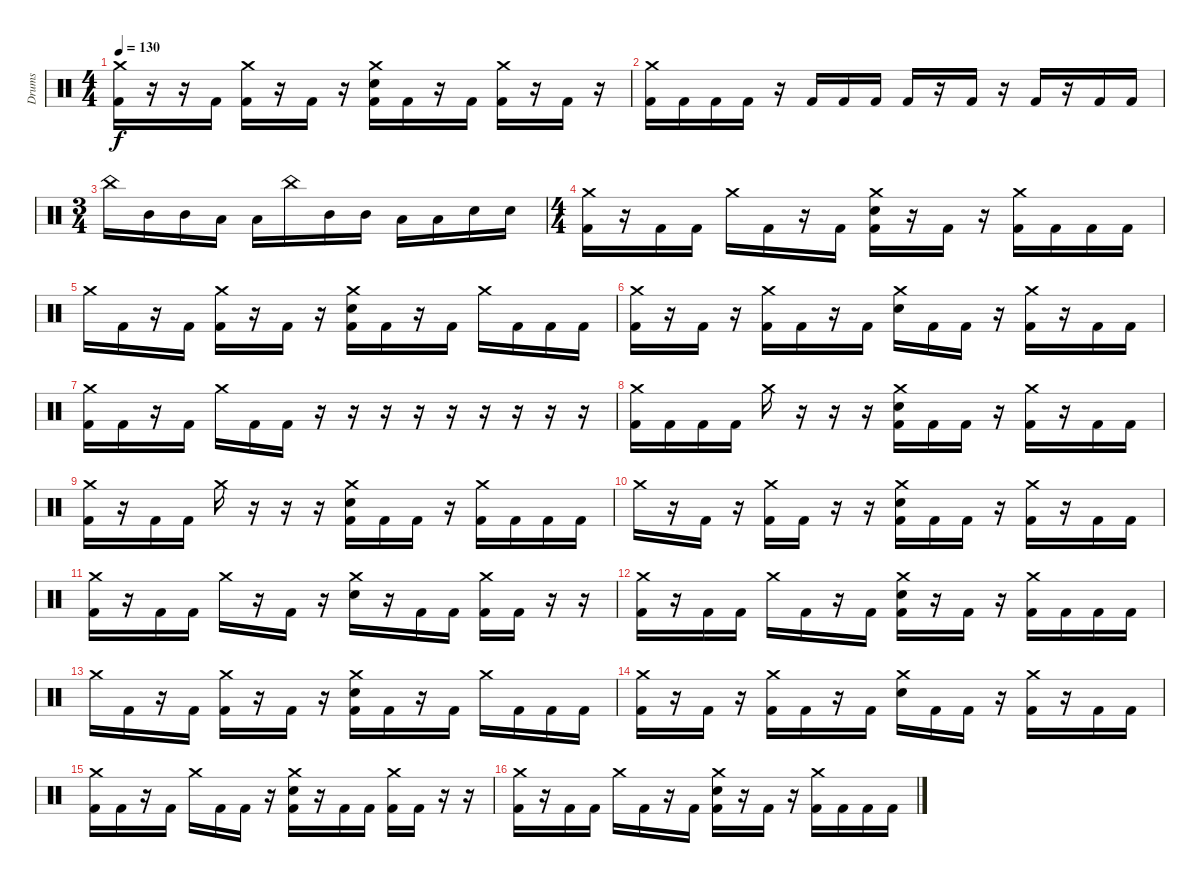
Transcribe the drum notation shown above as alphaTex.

\track ("Drums" "Drums") {instrument percussion}
\staff {score}
\articulation defaults
\ts (4 4)
\tempo 130
\clef neutral
\ks c
("Crash medium (hit)" "Kick (hit) 2").16{dy f} r.16 r.16 "Kick (hit) 2".16 ("Crash medium (hit)" "Kick (hit) 2").16 r.16 "Kick (hit) 2".16 r.16 ("Crash medium (hit)" "Electric Snare (hit)" "Kick (hit) 2").16 "Kick (hit) 2".16 r.16 "Kick (hit) 2".16 ("Crash medium (hit)" "Kick (hit) 2").16 r.16 "Kick (hit) 2".16 r.16 |
("Crash medium (hit)" "Kick (hit) 2").16 "Kick (hit) 2".16 "Kick (hit) 2".16 "Kick (hit) 2".16 r.16 "Kick (hit) 2".16 "Kick (hit) 2".16 "Kick (hit) 2".16 "Kick (hit) 2".16 r.16 "Kick (hit) 2".16 r.16 "Kick (hit) 2".16 r.16 "Kick (hit) 2".16 "Kick (hit) 2".16 |
\ts (3 4)
"China (hit)".16 "Mid Tom (hit)".16 "Mid Tom (hit)".16 "Low Tom (hit)".16 "Low Tom (hit)".16 "China (hit)".16 "Mid Tom (hit)".16 "Mid Tom (hit)".16 "Low Tom (hit)".16 "Low Tom (hit)".16 "Electric Snare (hit)".16 "Electric Snare (hit)".16 |
\ts (4 4)
("Crash medium (hit)" "Kick (hit) 2").16 r.16 "Kick (hit) 2".16 "Kick (hit) 2".16 "Crash medium (hit)".16 "Kick (hit) 2".16 r.16 "Kick (hit) 2".16 ("Crash medium (hit)" "Electric Snare (hit)" "Kick (hit) 2").16 r.16 "Kick (hit) 2".16 r.16 ("Crash medium (hit)" "Kick (hit) 2").16 "Kick (hit) 2".16 "Kick (hit) 2".16 "Kick (hit) 2".16 |
"Crash medium (hit)".16 "Kick (hit) 2".16 r.16 "Kick (hit) 2".16 ("Crash medium (hit)" "Kick (hit) 2").16 r.16 "Kick (hit) 2".16 r.16 ("Crash medium (hit)" "Electric Snare (hit)" "Kick (hit) 2").16 "Kick (hit) 2".16 r.16 "Kick (hit) 2".16 "Crash medium (hit)".16 "Kick (hit) 2".16 "Kick (hit) 2".16 "Kick (hit) 2".16 |
("Crash medium (hit)" "Kick (hit) 2").16 r.16 "Kick (hit) 2".16 r.16 ("Crash medium (hit)" "Kick (hit) 2").16 "Kick (hit) 2".16 r.16 "Kick (hit) 2".16 ("Crash medium (hit)" "Electric Snare (hit)").16 "Kick (hit) 2".16 "Kick (hit) 2".16 r.16 ("Crash medium (hit)" "Kick (hit) 2").16 r.16 "Kick (hit) 2".16 "Kick (hit) 2".16 |
("Crash medium (hit)" "Kick (hit) 2").16 "Kick (hit) 2".16 r.16 "Kick (hit) 2".16 "Crash medium (hit)".16 "Kick (hit) 2".16 "Kick (hit) 2".16 r.16 r.16 r.16 r.16 r.16 r.16 r.16 r.16 r.16 |
("Crash medium (hit)" "Kick (hit) 2").16 "Kick (hit) 2".16 "Kick (hit) 2".16 "Kick (hit) 2".16 "Crash medium (hit)".16 r.16 r.16 r.16 ("Crash medium (hit)" "Electric Snare (hit)" "Kick (hit) 2").16 "Kick (hit) 2".16 "Kick (hit) 2".16 r.16 ("Crash medium (hit)" "Kick (hit) 2").16 r.16 "Kick (hit) 2".16 "Kick (hit) 2".16 |
("Crash medium (hit)" "Kick (hit) 2").16 r.16 "Kick (hit) 2".16 "Kick (hit) 2".16 "Crash medium (hit)".16 r.16 r.16 r.16 ("Crash medium (hit)" "Electric Snare (hit)" "Kick (hit) 2").16 "Kick (hit) 2".16 "Kick (hit) 2".16 r.16 ("Crash medium (hit)" "Kick (hit) 2").16 "Kick (hit) 2".16 "Kick (hit) 2".16 "Kick (hit) 2".16 |
"Crash medium (hit)".16 r.16 "Kick (hit) 2".16 r.16 ("Crash medium (hit)" "Kick (hit) 2").16 "Kick (hit) 2".16 r.16 r.16 ("Crash medium (hit)" "Electric Snare (hit)" "Kick (hit) 2").16 "Kick (hit) 2".16 "Kick (hit) 2".16 r.16 ("Crash medium (hit)" "Kick (hit) 2").16 r.16 "Kick (hit) 2".16 "Kick (hit) 2".16 |
("Crash medium (hit)" "Kick (hit) 2").16 r.16 "Kick (hit) 2".16 "Kick (hit) 2".16 "Crash medium (hit)".16 r.16 "Kick (hit) 2".16 r.16 ("Crash medium (hit)" "Electric Snare (hit)").16 r.16 "Kick (hit) 2".16 "Kick (hit) 2".16 ("Crash medium (hit)" "Kick (hit) 2").16 "Kick (hit) 2".16 r.16 r.16 |
("Crash medium (hit)" "Kick (hit) 2").16 r.16 "Kick (hit) 2".16 "Kick (hit) 2".16 "Crash medium (hit)".16 "Kick (hit) 2".16 r.16 "Kick (hit) 2".16 ("Crash medium (hit)" "Electric Snare (hit)" "Kick (hit) 2").16 r.16 "Kick (hit) 2".16 r.16 ("Crash medium (hit)" "Kick (hit) 2").16 "Kick (hit) 2".16 "Kick (hit) 2".16 "Kick (hit) 2".16 |
"Crash medium (hit)".16 "Kick (hit) 2".16 r.16 "Kick (hit) 2".16 ("Crash medium (hit)" "Kick (hit) 2").16 r.16 "Kick (hit) 2".16 r.16 ("Crash medium (hit)" "Electric Snare (hit)" "Kick (hit) 2").16 "Kick (hit) 2".16 r.16 "Kick (hit) 2".16 "Crash medium (hit)".16 "Kick (hit) 2".16 "Kick (hit) 2".16 "Kick (hit) 2".16 |
("Crash medium (hit)" "Kick (hit) 2").16 r.16 "Kick (hit) 2".16 r.16 ("Crash medium (hit)" "Kick (hit) 2").16 "Kick (hit) 2".16 r.16 "Kick (hit) 2".16 ("Crash medium (hit)" "Electric Snare (hit)").16 "Kick (hit) 2".16 "Kick (hit) 2".16 r.16 ("Crash medium (hit)" "Kick (hit) 2").16 r.16 "Kick (hit) 2".16 "Kick (hit) 2".16 |
("Crash medium (hit)" "Kick (hit) 2").16 "Kick (hit) 2".16 r.16 "Kick (hit) 2".16 "Crash medium (hit)".16 "Kick (hit) 2".16 "Kick (hit) 2".16 r.16 ("Crash medium (hit)" "Electric Snare (hit)" "Kick (hit) 2").16 r.16 "Kick (hit) 2".16 "Kick (hit) 2".16 ("Crash medium (hit)" "Kick (hit) 2").16 "Kick (hit) 2".16 r.16 r.16 |
("Crash medium (hit)" "Kick (hit) 2").16 r.16 "Kick (hit) 2".16 "Kick (hit) 2".16 "Crash medium (hit)".16 "Kick (hit) 2".16 r.16 "Kick (hit) 2".16 ("Crash medium (hit)" "Electric Snare (hit)" "Kick (hit) 2").16 r.16 "Kick (hit) 2".16 r.16 ("Crash medium (hit)" "Kick (hit) 2").16 "Kick (hit) 2".16 "Kick (hit) 2".16 "Kick (hit) 2".16
